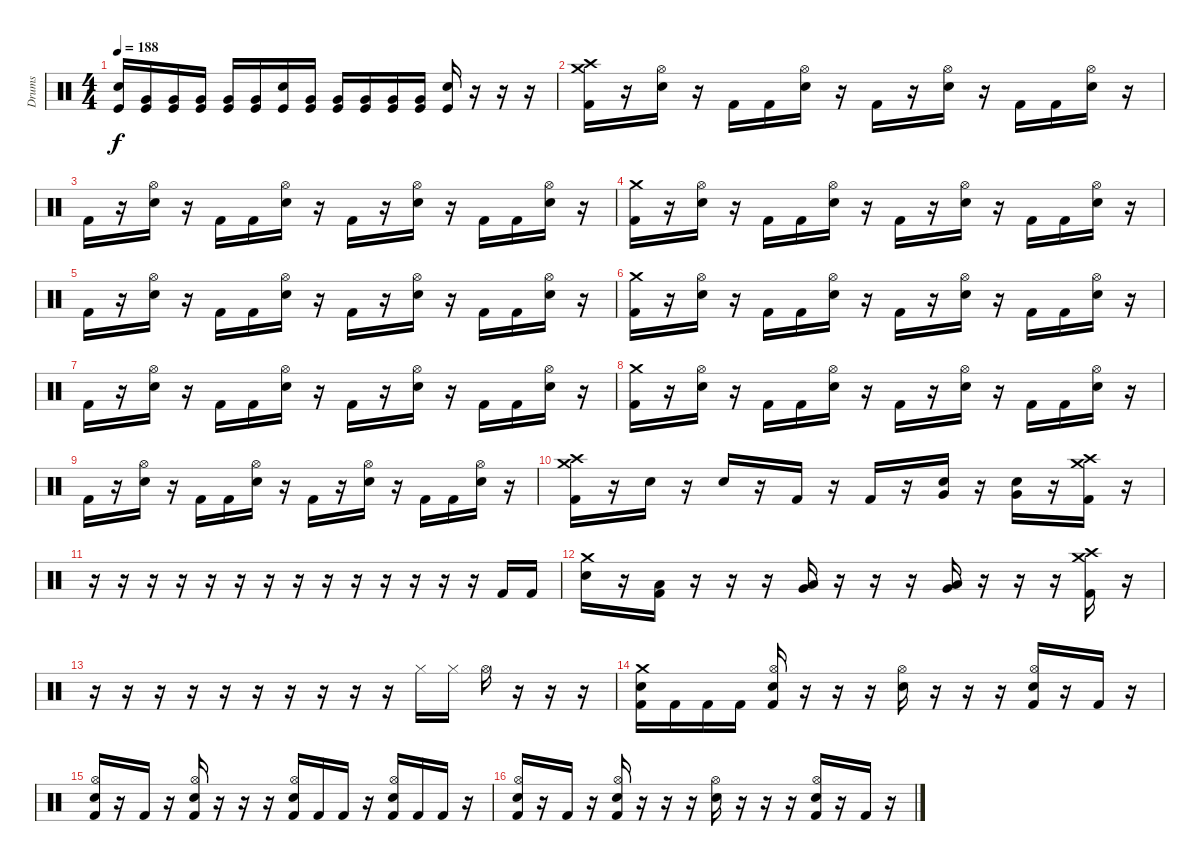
\track ("Drums" "Drums") {instrument percussion}
\staff {score}
\articulation defaults
\ts (4 4)
\tempo 188
\clef neutral
\ks c
("Electric Snare (hit)" "Kick (hit)").16{dy f} ("Very Low Tom (hit)" "Kick (hit)").16 ("Very Low Tom (hit)" "Kick (hit)").16 ("Very Low Tom (hit)" "Kick (hit)").16 ("Very Low Tom (hit)" "Kick (hit)").16 ("Very Low Tom (hit)" "Kick (hit)").16 ("Electric Snare (hit)" "Kick (hit)").16 ("Very Low Tom (hit)" "Kick (hit)").16 ("Very Low Tom (hit)" "Kick (hit)").16 ("Very Low Tom (hit)" "Kick (hit)").16 ("Very Low Tom (hit)" "Kick (hit)").16 ("Very Low Tom (hit)" "Kick (hit)").16 ("Electric Snare (hit)" "Kick (hit)").16 r.16 r.16 r.16 |
("Crash medium (hit)" "Crash high (hit)" "Kick (hit) 2").16 r.16 ("Hi-Hat (open)" "Snare (hit) 2").16 r.16 "Kick (hit) 2".16 "Kick (hit) 2".16 ("Hi-Hat (open)" "Snare (hit) 2").16 r.16 "Kick (hit) 2".16 r.16 ("Hi-Hat (open)" "Snare (hit) 2").16 r.16 "Kick (hit) 2".16 "Kick (hit) 2".16 ("Hi-Hat (open)" "Snare (hit) 2").16 r.16 |
"Kick (hit) 2".16 r.16 ("Hi-Hat (open)" "Snare (hit) 2").16 r.16 "Kick (hit) 2".16 "Kick (hit) 2".16 ("Hi-Hat (open)" "Snare (hit) 2").16 r.16 "Kick (hit) 2".16 r.16 ("Hi-Hat (open)" "Snare (hit) 2").16 r.16 "Kick (hit) 2".16 "Kick (hit) 2".16 ("Hi-Hat (open)" "Snare (hit) 2").16 r.16 |
("Crash medium (hit)" "Kick (hit) 2").16 r.16 ("Hi-Hat (open)" "Snare (hit) 2").16 r.16 "Kick (hit) 2".16 "Kick (hit) 2".16 ("Hi-Hat (open)" "Snare (hit) 2").16 r.16 "Kick (hit) 2".16 r.16 ("Hi-Hat (open)" "Snare (hit) 2").16 r.16 "Kick (hit) 2".16 "Kick (hit) 2".16 ("Hi-Hat (open)" "Snare (hit) 2").16 r.16 |
"Kick (hit) 2".16 r.16 ("Hi-Hat (open)" "Snare (hit) 2").16 r.16 "Kick (hit) 2".16 "Kick (hit) 2".16 ("Hi-Hat (open)" "Snare (hit) 2").16 r.16 "Kick (hit) 2".16 r.16 ("Hi-Hat (open)" "Snare (hit) 2").16 r.16 "Kick (hit) 2".16 "Kick (hit) 2".16 ("Hi-Hat (open)" "Snare (hit) 2").16 r.16 |
("Crash medium (hit)" "Kick (hit) 2").16 r.16 ("Hi-Hat (open)" "Snare (hit) 2").16 r.16 "Kick (hit) 2".16 "Kick (hit) 2".16 ("Hi-Hat (open)" "Snare (hit) 2").16 r.16 "Kick (hit) 2".16 r.16 ("Hi-Hat (open)" "Snare (hit) 2").16 r.16 "Kick (hit) 2".16 "Kick (hit) 2".16 ("Hi-Hat (open)" "Snare (hit) 2").16 r.16 |
"Kick (hit) 2".16 r.16 ("Hi-Hat (open)" "Snare (hit) 2").16 r.16 "Kick (hit) 2".16 "Kick (hit) 2".16 ("Hi-Hat (open)" "Snare (hit) 2").16 r.16 "Kick (hit) 2".16 r.16 ("Hi-Hat (open)" "Snare (hit) 2").16 r.16 "Kick (hit) 2".16 "Kick (hit) 2".16 ("Hi-Hat (open)" "Snare (hit) 2").16 r.16 |
("Crash medium (hit)" "Kick (hit) 2").16 r.16 ("Hi-Hat (open)" "Snare (hit) 2").16 r.16 "Kick (hit) 2".16 "Kick (hit) 2".16 ("Hi-Hat (open)" "Snare (hit) 2").16 r.16 "Kick (hit) 2".16 r.16 ("Hi-Hat (open)" "Snare (hit) 2").16 r.16 "Kick (hit) 2".16 "Kick (hit) 2".16 ("Hi-Hat (open)" "Snare (hit) 2").16 r.16 |
"Kick (hit) 2".16 r.16 ("Hi-Hat (open)" "Snare (hit) 2").16 r.16 "Kick (hit) 2".16 "Kick (hit) 2".16 ("Hi-Hat (open)" "Snare (hit) 2").16 r.16 "Kick (hit) 2".16 r.16 ("Hi-Hat (open)" "Snare (hit) 2").16 r.16 "Kick (hit) 2".16 "Kick (hit) 2".16 ("Hi-Hat (open)" "Snare (hit) 2").16 r.16 |
("Crash medium (hit)" "Crash high (hit)" "Kick (hit) 2").16 r.16 "Snare (hit) 2".16 r.16 "Snare (hit) 2".16 r.16 "Kick (hit) 2".16 r.16 "Kick (hit) 2".16 r.16 ("Snare (hit) 2" "Very Low Tom (hit)").16 r.16 ("Snare (hit) 2" "Very Low Tom (hit)").16 r.16 ("Crash medium (hit)" "Crash high (hit)" "Kick (hit) 2").16 r.16 |
r.16 r.16 r.16 r.16 r.16 r.16 r.16 r.16 r.16 r.16 r.16 r.16 r.16 r.16 "Kick (hit) 2".16 "Kick (hit) 2".16 |
("Crash medium (hit)" "Snare (hit) 2").16 r.16 ("Low Tom (hit)" "Kick (hit) 2").16 r.16 r.16 r.16 ("Low Tom (hit)" "Very Low Tom (hit)").16 r.16 r.16 r.16 ("Very Low Tom (hit)" "Low Floor Tom (hit)").16 r.16 r.16 r.16 ("Crash medium (hit)" "Crash high (hit)" "Kick (hit) 2").16 r.16 |
r.16 r.16 r.16 r.16 r.16 r.16 r.16 r.16 r.16 r.16 "Hi-Hat (closed)".16 "Hi-Hat (closed)".16 "Hi-Hat (open)".16 r.16 r.16 r.16 |
("Crash medium (hit)" "Snare (hit) 2" "Kick (hit) 2").16 "Kick (hit) 2".16 "Kick (hit) 2".16 "Kick (hit) 2".16 ("Hi-Hat (open)" "Snare (hit) 2" "Kick (hit) 2").16 r.16 r.16 r.16 ("Hi-Hat (open)" "Snare (hit) 2").16 r.16 r.16 r.16 ("Hi-Hat (open)" "Snare (hit) 2" "Kick (hit) 2").16 r.16 "Kick (hit) 2".16 r.16 |
("Hi-Hat (open)" "Snare (hit) 2" "Kick (hit) 2").16 r.16 "Kick (hit) 2".16 r.16 ("Hi-Hat (open)" "Snare (hit) 2" "Kick (hit) 2").16 r.16 r.16 r.16 ("Hi-Hat (open)" "Snare (hit) 2" "Kick (hit) 2").16 "Kick (hit) 2".16 "Kick (hit) 2".16 r.16 ("Hi-Hat (open)" "Snare (hit) 2" "Kick (hit) 2").16 "Kick (hit) 2".16 "Kick (hit) 2".16 r.16 |
("Hi-Hat (open)" "Snare (hit) 2" "Kick (hit) 2").16 r.16 "Kick (hit) 2".16 r.16 ("Hi-Hat (open)" "Snare (hit) 2" "Kick (hit) 2").16 r.16 r.16 r.16 ("Hi-Hat (open)" "Snare (hit) 2").16 r.16 r.16 r.16 ("Hi-Hat (open)" "Snare (hit) 2" "Kick (hit) 2").16 r.16 "Kick (hit) 2".16 r.16
